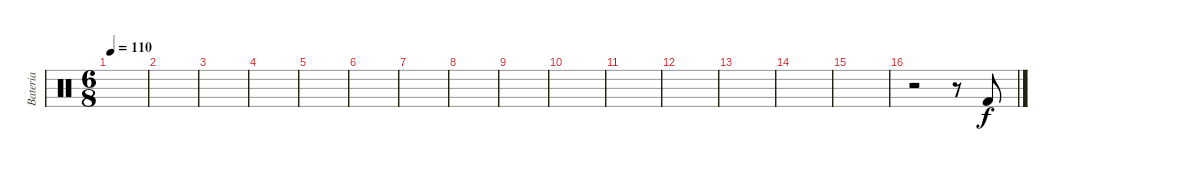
\track ("Bateria" "Bateria") {instrument percussion}
\staff {score}
\articulation defaults
\ts (6 8)
\tempo 110
\clef neutral
\ks c
|
|
|
|
|
|
|
|
|
|
|
|
|
|
|
r.2 r.8 "Kick (hit) 2".8
